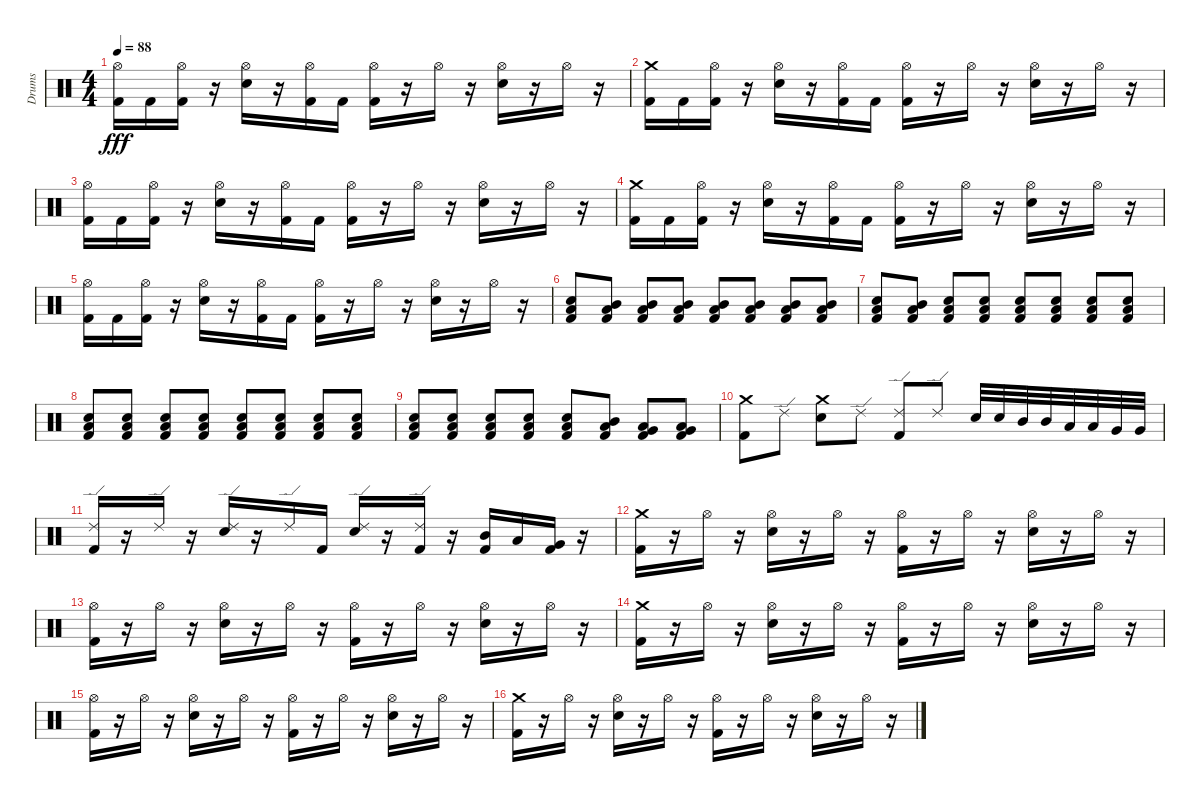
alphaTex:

\track ("Drums" "Drums") {instrument percussion}
\staff {score}
\articulation defaults
\ts (4 4)
\tempo 88
\clef neutral
\ks c
("Hi-Hat (open)" "Kick (hit) 2").16{dy fff} "Kick (hit) 2".16 ("Kick (hit) 2" "Hi-Hat (open)").16 r.16 ("Hi-Hat (open)" "Electric Snare (hit)").16 r.16 ("Kick (hit) 2" "Hi-Hat (open)").16 "Kick (hit) 2".16 ("Kick (hit) 2" "Hi-Hat (open)").16 r.16 "Hi-Hat (open)".16 r.16 ("Electric Snare (hit)" "Hi-Hat (open)").16 r.16 "Hi-Hat (open)".16 r.16 |
("Crash medium (hit)" "Kick (hit) 2").16 "Kick (hit) 2".16 ("Kick (hit) 2" "Hi-Hat (open)").16 r.16 ("Hi-Hat (open)" "Electric Snare (hit)").16 r.16 ("Kick (hit) 2" "Hi-Hat (open)").16 "Kick (hit) 2".16 ("Kick (hit) 2" "Hi-Hat (open)").16 r.16 "Hi-Hat (open)".16 r.16 ("Electric Snare (hit)" "Hi-Hat (open)").16 r.16 "Hi-Hat (open)".16 r.16 |
("Hi-Hat (open)" "Kick (hit) 2").16 "Kick (hit) 2".16 ("Kick (hit) 2" "Hi-Hat (open)").16 r.16 ("Hi-Hat (open)" "Electric Snare (hit)").16 r.16 ("Kick (hit) 2" "Hi-Hat (open)").16 "Kick (hit) 2".16 ("Kick (hit) 2" "Hi-Hat (open)").16 r.16 "Hi-Hat (open)".16 r.16 ("Electric Snare (hit)" "Hi-Hat (open)").16 r.16 "Hi-Hat (open)".16 r.16 |
("Crash medium (hit)" "Kick (hit) 2").16 "Kick (hit) 2".16 ("Kick (hit) 2" "Hi-Hat (open)").16 r.16 ("Hi-Hat (open)" "Electric Snare (hit)").16 r.16 ("Kick (hit) 2" "Hi-Hat (open)").16 "Kick (hit) 2".16 ("Kick (hit) 2" "Hi-Hat (open)").16 r.16 "Hi-Hat (open)".16 r.16 ("Electric Snare (hit)" "Hi-Hat (open)").16 r.16 "Hi-Hat (open)".16 r.16 |
("Hi-Hat (open)" "Kick (hit) 2").16 "Kick (hit) 2".16 ("Kick (hit) 2" "Hi-Hat (open)").16 r.16 ("Hi-Hat (open)" "Electric Snare (hit)").16 r.16 ("Kick (hit) 2" "Hi-Hat (open)").16 "Kick (hit) 2".16 ("Kick (hit) 2" "Hi-Hat (open)").16 r.16 "Hi-Hat (open)".16 r.16 ("Electric Snare (hit)" "Hi-Hat (open)").16 r.16 "Hi-Hat (open)".16 r.16 |
("Electric Snare (hit)" "Low Tom (hit)" "Kick (hit) 2").8 ("Mid Tom (hit)" "Low Tom (hit)" "Kick (hit) 2").8 ("Mid Tom (hit)" "Low Tom (hit)" "Kick (hit) 2").8 ("Mid Tom (hit)" "Low Tom (hit)" "Kick (hit) 2").8 ("Mid Tom (hit)" "Low Tom (hit)" "Kick (hit) 2").8 ("Mid Tom (hit)" "Low Tom (hit)" "Kick (hit) 2").8 ("Mid Tom (hit)" "Low Tom (hit)" "Kick (hit) 2").8 ("Mid Tom (hit)" "Low Tom (hit)" "Kick (hit) 2").8 |
("Low Tom (hit)" "Kick (hit) 2" "Electric Snare (hit)").8 ("Mid Tom (hit)" "Low Tom (hit)" "Kick (hit) 2").8 ("Kick (hit) 2" "Low Tom (hit)" "Electric Snare (hit)").8 ("Low Tom (hit)" "Kick (hit) 2" "Electric Snare (hit)").8 ("Low Tom (hit)" "Kick (hit) 2" "Electric Snare (hit)").8 ("Low Tom (hit)" "Kick (hit) 2" "Electric Snare (hit)").8 ("Low Tom (hit)" "Kick (hit) 2" "Electric Snare (hit)").8 ("Low Tom (hit)" "Kick (hit) 2" "Electric Snare (hit)").8 |
("Electric Snare (hit)" "Low Tom (hit)" "Kick (hit) 2").8 ("Low Tom (hit)" "Electric Snare (hit)" "Kick (hit) 2").8 ("Low Tom (hit)" "Electric Snare (hit)" "Kick (hit) 2").8 ("Low Tom (hit)" "Electric Snare (hit)" "Kick (hit) 2").8 ("Low Tom (hit)" "Electric Snare (hit)" "Kick (hit) 2").8 ("Low Tom (hit)" "Electric Snare (hit)" "Kick (hit) 2").8 ("Low Tom (hit)" "Electric Snare (hit)" "Kick (hit) 2").8 ("Low Tom (hit)" "Electric Snare (hit)" "Kick (hit) 2").8 |
("Low Tom (hit)" "Electric Snare (hit)" "Kick (hit) 2").8 ("Low Tom (hit)" "Electric Snare (hit)" "Kick (hit) 2").8 ("Low Tom (hit)" "Electric Snare (hit)" "Kick (hit) 2").8 ("Low Tom (hit)" "Electric Snare (hit)" "Kick (hit) 2").8 ("Low Tom (hit)" "Electric Snare (hit)" "Kick (hit) 2").8 ("Low Tom (hit)" "Mid Tom (hit)" "Kick (hit) 2").8 ("Very Low Tom (hit)" "Low Tom (hit)" "Kick (hit) 2").8 ("Low Tom (hit)" "Very Low Tom (hit)" "Kick (hit) 2").8 |
("Crash medium (hit)" "Kick (hit) 2").8 "Ride (edge) 2".8 ("Crash medium (hit)" "Electric Snare (hit)").8 "Ride (edge) 2".8 ("Ride (edge) 2" "Kick (hit) 2").8 "Ride (edge) 2".8 "Electric Snare (hit)".32 "Electric Snare (hit)".32 "Mid Tom (hit)".32 "Mid Tom (hit)".32 "Low Tom (hit)".32 "Low Tom (hit)".32 "Very Low Tom (hit)".32 "Very Low Tom (hit)".32 |
("Ride (edge) 2" "Kick (hit) 2").16 r.16 "Ride (edge) 2".16 r.16 ("Ride (edge) 2" "Electric Snare (hit)").16 r.16 "Ride (edge) 2".16 "Kick (hit) 2".16 ("Ride (edge) 2" "Electric Snare (hit)").16 r.16 ("Ride (edge) 2" "Kick (hit) 2").16 r.16 ("Kick (hit) 2" "Mid Tom (hit)").16 "Low Tom (hit)".16 ("Kick (hit) 2" "Very Low Tom (hit)").16 r.16 |
("Kick (hit) 2" "Crash medium (hit)").16 r.16 "Hi-Hat (open)".16 r.16 ("Electric Snare (hit)" "Hi-Hat (open)").16 r.16 "Hi-Hat (open)".16 r.16 ("Kick (hit) 2" "Hi-Hat (open)").16 r.16 "Hi-Hat (open)".16 r.16 ("Electric Snare (hit)" "Hi-Hat (open)").16 r.16 "Hi-Hat (open)".16 r.16 |
("Kick (hit) 2" "Hi-Hat (open)").16 r.16 "Hi-Hat (open)".16 r.16 ("Electric Snare (hit)" "Hi-Hat (open)").16 r.16 "Hi-Hat (open)".16 r.16 ("Kick (hit) 2" "Hi-Hat (open)").16 r.16 "Hi-Hat (open)".16 r.16 ("Electric Snare (hit)" "Hi-Hat (open)").16 r.16 "Hi-Hat (open)".16 r.16 |
("Kick (hit) 2" "Crash medium (hit)").16 r.16 "Hi-Hat (open)".16 r.16 ("Electric Snare (hit)" "Hi-Hat (open)").16 r.16 "Hi-Hat (open)".16 r.16 ("Kick (hit) 2" "Hi-Hat (open)").16 r.16 "Hi-Hat (open)".16 r.16 ("Electric Snare (hit)" "Hi-Hat (open)").16 r.16 "Hi-Hat (open)".16 r.16 |
("Kick (hit) 2" "Hi-Hat (open)").16 r.16 "Hi-Hat (open)".16 r.16 ("Electric Snare (hit)" "Hi-Hat (open)").16 r.16 "Hi-Hat (open)".16 r.16 ("Kick (hit) 2" "Hi-Hat (open)").16 r.16 "Hi-Hat (open)".16 r.16 ("Electric Snare (hit)" "Hi-Hat (open)").16 r.16 "Hi-Hat (open)".16 r.16 |
("Kick (hit) 2" "Crash medium (hit)").16 r.16 "Hi-Hat (open)".16 r.16 ("Electric Snare (hit)" "Hi-Hat (open)").16 r.16 "Hi-Hat (open)".16 r.16 ("Kick (hit) 2" "Hi-Hat (open)").16 r.16 "Hi-Hat (open)".16 r.16 ("Electric Snare (hit)" "Hi-Hat (open)").16 r.16 "Hi-Hat (open)".16 r.16
